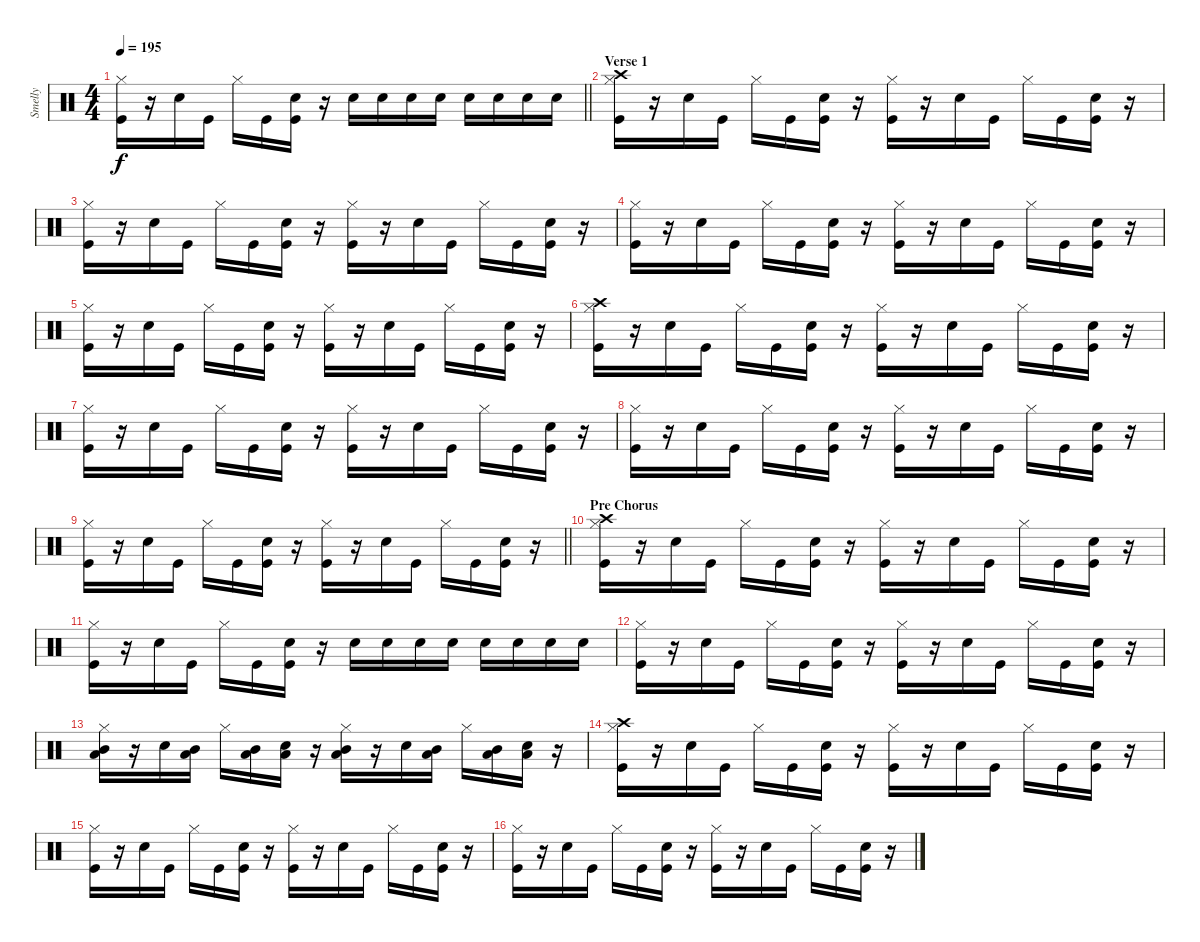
\track ("Smelly" "Smelly") {instrument percussion}
\staff {score}
\articulation defaults
\ts (4 4)
\tempo 195
\clef neutral
\barLineRight lightlight
\ks c
("Hi-Hat (closed)" "Kick (hit)").16{dy f} r.16 "Snare (hit) 2".16 "Kick (hit)".16 "Hi-Hat (closed)".16 "Kick (hit)".16 ("Snare (hit) 2" "Kick (hit)").16 r.16 "Snare (hit) 2".16 "Snare (hit) 2".16 "Snare (hit) 2".16 "Snare (hit) 2".16 "Snare (hit) 2".16 "Snare (hit) 2".16 "Snare (hit) 2".16 "Snare (hit) 2".16 |
\section ("" "Verse 1")
("Crash high (hit)" "Hi-Hat (closed)" "Kick (hit)").16 r.16 "Snare (hit) 2".16 "Kick (hit)".16 "Hi-Hat (closed)".16 "Kick (hit)".16 ("Snare (hit) 2" "Kick (hit)").16 r.16 ("Hi-Hat (closed)" "Kick (hit)").16 r.16 "Snare (hit) 2".16 "Kick (hit)".16 "Hi-Hat (closed)".16 "Kick (hit)".16 ("Snare (hit) 2" "Kick (hit)").16 r.16 |
("Hi-Hat (closed)" "Kick (hit)").16 r.16 "Snare (hit) 2".16 "Kick (hit)".16 "Hi-Hat (closed)".16 "Kick (hit)".16 ("Snare (hit) 2" "Kick (hit)").16 r.16 ("Hi-Hat (closed)" "Kick (hit)").16 r.16 "Snare (hit) 2".16 "Kick (hit)".16 "Hi-Hat (closed)".16 "Kick (hit)".16 ("Snare (hit) 2" "Kick (hit)").16 r.16 |
("Hi-Hat (closed)" "Kick (hit)").16 r.16 "Snare (hit) 2".16 "Kick (hit)".16 "Hi-Hat (closed)".16 "Kick (hit)".16 ("Snare (hit) 2" "Kick (hit)").16 r.16 ("Hi-Hat (closed)" "Kick (hit)").16 r.16 "Snare (hit) 2".16 "Kick (hit)".16 "Hi-Hat (closed)".16 "Kick (hit)".16 ("Snare (hit) 2" "Kick (hit)").16 r.16 |
("Hi-Hat (closed)" "Kick (hit)").16 r.16 "Snare (hit) 2".16 "Kick (hit)".16 "Hi-Hat (closed)".16 "Kick (hit)".16 ("Snare (hit) 2" "Kick (hit)").16 r.16 ("Hi-Hat (closed)" "Kick (hit)").16 r.16 "Snare (hit) 2".16 "Kick (hit)".16 "Hi-Hat (closed)".16 "Kick (hit)".16 ("Snare (hit) 2" "Kick (hit)").16 r.16 |
("Crash high (hit)" "Hi-Hat (closed)" "Kick (hit)").16 r.16 "Snare (hit) 2".16 "Kick (hit)".16 "Hi-Hat (closed)".16 "Kick (hit)".16 ("Snare (hit) 2" "Kick (hit)").16 r.16 ("Hi-Hat (closed)" "Kick (hit)").16 r.16 "Snare (hit) 2".16 "Kick (hit)".16 "Hi-Hat (closed)".16 "Kick (hit)".16 ("Snare (hit) 2" "Kick (hit)").16 r.16 |
("Hi-Hat (closed)" "Kick (hit)").16 r.16 "Snare (hit) 2".16 "Kick (hit)".16 "Hi-Hat (closed)".16 "Kick (hit)".16 ("Snare (hit) 2" "Kick (hit)").16 r.16 ("Hi-Hat (closed)" "Kick (hit)").16 r.16 "Snare (hit) 2".16 "Kick (hit)".16 "Hi-Hat (closed)".16 "Kick (hit)".16 ("Snare (hit) 2" "Kick (hit)").16 r.16 |
("Hi-Hat (closed)" "Kick (hit)").16 r.16 "Snare (hit) 2".16 "Kick (hit)".16 "Hi-Hat (closed)".16 "Kick (hit)".16 ("Snare (hit) 2" "Kick (hit)").16 r.16 ("Hi-Hat (closed)" "Kick (hit)").16 r.16 "Snare (hit) 2".16 "Kick (hit)".16 "Hi-Hat (closed)".16 "Kick (hit)".16 ("Snare (hit) 2" "Kick (hit)").16 r.16 |
\barLineRight lightlight
("Hi-Hat (closed)" "Kick (hit)").16 r.16 "Snare (hit) 2".16 "Kick (hit)".16 "Hi-Hat (closed)".16 "Kick (hit)".16 ("Snare (hit) 2" "Kick (hit)").16 r.16 ("Hi-Hat (closed)" "Kick (hit)").16 r.16 "Snare (hit) 2".16 "Kick (hit)".16 "Hi-Hat (closed)".16 "Kick (hit)".16 ("Snare (hit) 2" "Kick (hit)").16 r.16 |
\section ("" "Pre Chorus")
("Crash high (hit)" "Hi-Hat (closed)" "Kick (hit)").16 r.16 "Snare (hit) 2".16 "Kick (hit)".16 "Hi-Hat (closed)".16 "Kick (hit)".16 ("Snare (hit) 2" "Kick (hit)").16 r.16 ("Hi-Hat (closed)" "Kick (hit)").16 r.16 "Snare (hit) 2".16 "Kick (hit)".16 "Hi-Hat (closed)".16 "Kick (hit)".16 ("Snare (hit) 2" "Kick (hit)").16 r.16 |
("Hi-Hat (closed)" "Kick (hit)").16 r.16 "Snare (hit) 2".16 "Kick (hit)".16 "Hi-Hat (closed)".16 "Kick (hit)".16 ("Snare (hit) 2" "Kick (hit)").16 r.16 "Snare (hit) 2".16 "Snare (hit) 2".16 "Snare (hit) 2".16 "Snare (hit) 2".16 "Snare (hit) 2".16 "Snare (hit) 2".16 "Snare (hit) 2".16 "Snare (hit) 2".16 |
("Hi-Hat (closed)" "Kick (hit)").16 r.16 "Snare (hit) 2".16 "Kick (hit)".16 "Hi-Hat (closed)".16 "Kick (hit)".16 ("Snare (hit) 2" "Kick (hit)").16 r.16 ("Hi-Hat (closed)" "Kick (hit)").16 r.16 "Snare (hit) 2".16 "Kick (hit)".16 "Hi-Hat (closed)".16 "Kick (hit)".16 ("Snare (hit) 2" "Kick (hit)").16 r.16 |
("Hi-Hat (closed)" "Mid Tom (hit)" "Low Tom (hit)").16 r.16 "Snare (hit) 2".16 ("Mid Tom (hit)" "Low Tom (hit)").16 "Hi-Hat (closed)".16 ("Mid Tom (hit)" "Low Tom (hit)").16 ("Snare (hit) 2" "Low Tom (hit)").16 r.16 ("Hi-Hat (closed)" "Mid Tom (hit)" "Low Tom (hit)").16 r.16 "Snare (hit) 2".16 ("Mid Tom (hit)" "Low Tom (hit)").16 "Hi-Hat (closed)".16 ("Mid Tom (hit)" "Low Tom (hit)").16 ("Snare (hit) 2" "Low Tom (hit)").16 r.16 |
("Crash high (hit)" "Hi-Hat (closed)" "Kick (hit)").16 r.16 "Snare (hit) 2".16 "Kick (hit)".16 "Hi-Hat (closed)".16 "Kick (hit)".16 ("Snare (hit) 2" "Kick (hit)").16 r.16 ("Hi-Hat (closed)" "Kick (hit)").16 r.16 "Snare (hit) 2".16 "Kick (hit)".16 "Hi-Hat (closed)".16 "Kick (hit)".16 ("Snare (hit) 2" "Kick (hit)").16 r.16 |
("Hi-Hat (closed)" "Kick (hit)").16 r.16 "Snare (hit) 2".16 "Kick (hit)".16 "Hi-Hat (closed)".16 "Kick (hit)".16 ("Snare (hit) 2" "Kick (hit)").16 r.16 ("Hi-Hat (closed)" "Kick (hit)").16 r.16 "Snare (hit) 2".16 "Kick (hit)".16 "Hi-Hat (closed)".16 "Kick (hit)".16 ("Snare (hit) 2" "Kick (hit)").16 r.16 |
("Hi-Hat (closed)" "Kick (hit)").16 r.16 "Snare (hit) 2".16 "Kick (hit)".16 "Hi-Hat (closed)".16 "Kick (hit)".16 ("Snare (hit) 2" "Kick (hit)").16 r.16 ("Hi-Hat (closed)" "Kick (hit)").16 r.16 "Snare (hit) 2".16 "Kick (hit)".16 "Hi-Hat (closed)".16 "Kick (hit)".16 ("Snare (hit) 2" "Kick (hit)").16 r.16
